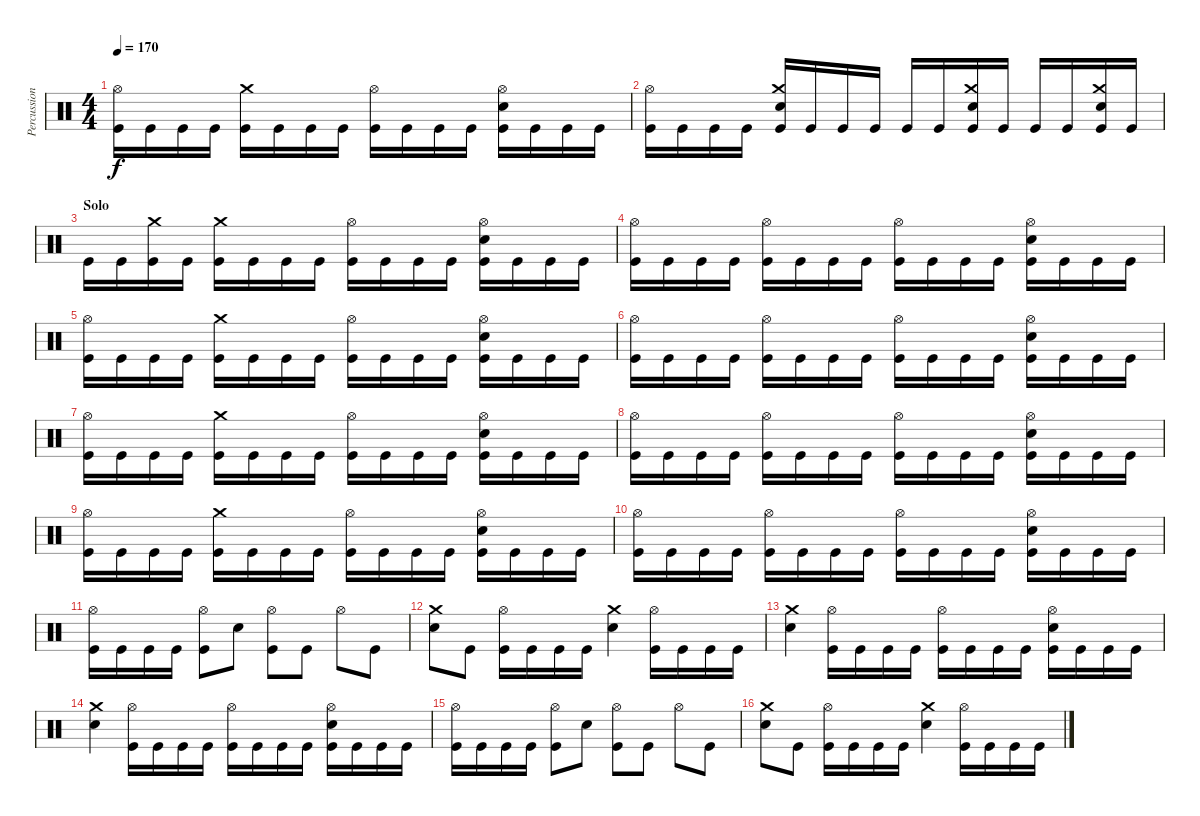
\track ("Percussion" "Percussion") {instrument percussion}
\staff {score}
\articulation defaults
\ts (4 4)
\tempo 170
\clef neutral
\ks c
("Hi-Hat (open)" "Kick (hit)").16{dy f} "Kick (hit)".16 "Kick (hit)".16 "Kick (hit)".16 ("Crash medium (hit)" "Kick (hit)").16 "Kick (hit)".16 "Kick (hit)".16 "Kick (hit)".16 ("Hi-Hat (open)" "Kick (hit)").16 "Kick (hit)".16 "Kick (hit)".16 "Kick (hit)".16 ("Hi-Hat (open)" "Snare (hit) 2" "Kick (hit)").16 "Kick (hit)".16 "Kick (hit)".16 "Kick (hit)".16 |
("Hi-Hat (open)" "Kick (hit)").16 "Kick (hit)".16 "Kick (hit)".16 "Kick (hit)".16 ("Crash medium (hit)" "Snare (hit) 2" "Kick (hit)").16 "Kick (hit)".16 "Kick (hit)".16 "Kick (hit)".16 "Kick (hit)".16 "Kick (hit)".16 ("Crash medium (hit)" "Snare (hit) 2" "Kick (hit)").16 "Kick (hit)".16 "Kick (hit)".16 "Kick (hit)".16 ("Crash medium (hit)" "Snare (hit) 2" "Kick (hit)").16 "Kick (hit)".16 |
\section ("" "Solo")
"Kick (hit)".16 "Kick (hit)".16 ("Crash medium (hit)" "Kick (hit)").16 "Kick (hit)".16 ("Crash medium (hit)" "Kick (hit)").16 "Kick (hit)".16 "Kick (hit)".16 "Kick (hit)".16 ("Hi-Hat (open)" "Kick (hit)").16 "Kick (hit)".16 "Kick (hit)".16 "Kick (hit)".16 ("Hi-Hat (open)" "Snare (hit) 2" "Kick (hit)").16 "Kick (hit)".16 "Kick (hit)".16 "Kick (hit)".16 |
("Hi-Hat (open)" "Kick (hit)").16 "Kick (hit)".16 "Kick (hit)".16 "Kick (hit)".16 ("Hi-Hat (open)" "Kick (hit)").16 "Kick (hit)".16 "Kick (hit)".16 "Kick (hit)".16 ("Hi-Hat (open)" "Kick (hit)").16 "Kick (hit)".16 "Kick (hit)".16 "Kick (hit)".16 ("Hi-Hat (open)" "Snare (hit) 2" "Kick (hit)").16 "Kick (hit)".16 "Kick (hit)".16 "Kick (hit)".16 |
("Hi-Hat (open)" "Kick (hit)").16 "Kick (hit)".16 "Kick (hit)".16 "Kick (hit)".16 ("Crash medium (hit)" "Kick (hit)").16 "Kick (hit)".16 "Kick (hit)".16 "Kick (hit)".16 ("Hi-Hat (open)" "Kick (hit)").16 "Kick (hit)".16 "Kick (hit)".16 "Kick (hit)".16 ("Hi-Hat (open)" "Snare (hit) 2" "Kick (hit)").16 "Kick (hit)".16 "Kick (hit)".16 "Kick (hit)".16 |
("Hi-Hat (open)" "Kick (hit)").16 "Kick (hit)".16 "Kick (hit)".16 "Kick (hit)".16 ("Hi-Hat (open)" "Kick (hit)").16 "Kick (hit)".16 "Kick (hit)".16 "Kick (hit)".16 ("Hi-Hat (open)" "Kick (hit)").16 "Kick (hit)".16 "Kick (hit)".16 "Kick (hit)".16 ("Hi-Hat (open)" "Snare (hit) 2" "Kick (hit)").16 "Kick (hit)".16 "Kick (hit)".16 "Kick (hit)".16 |
("Hi-Hat (open)" "Kick (hit)").16 "Kick (hit)".16 "Kick (hit)".16 "Kick (hit)".16 ("Crash medium (hit)" "Kick (hit)").16 "Kick (hit)".16 "Kick (hit)".16 "Kick (hit)".16 ("Hi-Hat (open)" "Kick (hit)").16 "Kick (hit)".16 "Kick (hit)".16 "Kick (hit)".16 ("Hi-Hat (open)" "Snare (hit) 2" "Kick (hit)").16 "Kick (hit)".16 "Kick (hit)".16 "Kick (hit)".16 |
("Hi-Hat (open)" "Kick (hit)").16 "Kick (hit)".16 "Kick (hit)".16 "Kick (hit)".16 ("Hi-Hat (open)" "Kick (hit)").16 "Kick (hit)".16 "Kick (hit)".16 "Kick (hit)".16 ("Hi-Hat (open)" "Kick (hit)").16 "Kick (hit)".16 "Kick (hit)".16 "Kick (hit)".16 ("Hi-Hat (open)" "Snare (hit) 2" "Kick (hit)").16 "Kick (hit)".16 "Kick (hit)".16 "Kick (hit)".16 |
("Hi-Hat (open)" "Kick (hit)").16 "Kick (hit)".16 "Kick (hit)".16 "Kick (hit)".16 ("Crash medium (hit)" "Kick (hit)").16 "Kick (hit)".16 "Kick (hit)".16 "Kick (hit)".16 ("Hi-Hat (open)" "Kick (hit)").16 "Kick (hit)".16 "Kick (hit)".16 "Kick (hit)".16 ("Hi-Hat (open)" "Snare (hit) 2" "Kick (hit)").16 "Kick (hit)".16 "Kick (hit)".16 "Kick (hit)".16 |
("Hi-Hat (open)" "Kick (hit)").16 "Kick (hit)".16 "Kick (hit)".16 "Kick (hit)".16 ("Hi-Hat (open)" "Kick (hit)").16 "Kick (hit)".16 "Kick (hit)".16 "Kick (hit)".16 ("Hi-Hat (open)" "Kick (hit)").16 "Kick (hit)".16 "Kick (hit)".16 "Kick (hit)".16 ("Hi-Hat (open)" "Snare (hit) 2" "Kick (hit)").16 "Kick (hit)".16 "Kick (hit)".16 "Kick (hit)".16 |
("Hi-Hat (open)" "Kick (hit)").16 "Kick (hit)".16 "Kick (hit)".16 "Kick (hit)".16 ("Hi-Hat (open)" "Kick (hit)").8 "Snare (hit)".8 ("Hi-Hat (open)" "Kick (hit)").8 "Kick (hit)".8 "Hi-Hat (open)".8 "Kick (hit)".8 |
("Crash medium (hit)" "Snare (hit) 2").8 "Kick (hit)".8 ("Hi-Hat (open)" "Kick (hit)").16 "Kick (hit)".16 "Kick (hit)".16 "Kick (hit)".16 ("Crash medium (hit)" "Snare (hit) 2").4 ("Hi-Hat (open)" "Kick (hit)").16 "Kick (hit)".16 "Kick (hit)".16 "Kick (hit)".16 |
("Crash medium (hit)" "Snare (hit) 2").4 ("Hi-Hat (open)" "Kick (hit)").16 "Kick (hit)".16 "Kick (hit)".16 "Kick (hit)".16 ("Hi-Hat (open)" "Kick (hit)").16 "Kick (hit)".16 "Kick (hit)".16 "Kick (hit)".16 ("Hi-Hat (open)" "Snare (hit) 2" "Kick (hit)").16 "Kick (hit)".16 "Kick (hit)".16 "Kick (hit)".16 |
("Crash medium (hit)" "Snare (hit) 2").4 ("Hi-Hat (open)" "Kick (hit)").16 "Kick (hit)".16 "Kick (hit)".16 "Kick (hit)".16 ("Hi-Hat (open)" "Kick (hit)").16 "Kick (hit)".16 "Kick (hit)".16 "Kick (hit)".16 ("Hi-Hat (open)" "Snare (hit) 2" "Kick (hit)").16 "Kick (hit)".16 "Kick (hit)".16 "Kick (hit)".16 |
("Hi-Hat (open)" "Kick (hit)").16 "Kick (hit)".16 "Kick (hit)".16 "Kick (hit)".16 ("Hi-Hat (open)" "Kick (hit)").8 "Snare (hit)".8 ("Hi-Hat (open)" "Kick (hit)").8 "Kick (hit)".8 "Hi-Hat (open)".8 "Kick (hit)".8 |
("Crash medium (hit)" "Snare (hit) 2").8 "Kick (hit)".8 ("Hi-Hat (open)" "Kick (hit)").16 "Kick (hit)".16 "Kick (hit)".16 "Kick (hit)".16 ("Crash medium (hit)" "Snare (hit) 2").4 ("Hi-Hat (open)" "Kick (hit)").16 "Kick (hit)".16 "Kick (hit)".16 "Kick (hit)".16
